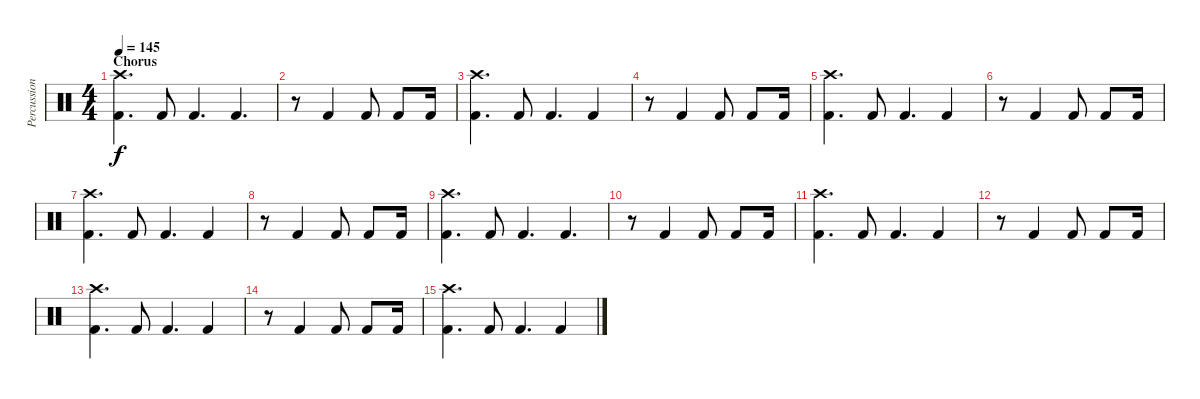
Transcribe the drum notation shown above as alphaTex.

\track ("Percussion" "Percussion") {instrument percussion}
\staff {score}
\articulation defaults
\ts (4 4)
\section ("" "Chorus")
\tempo 145
\clef neutral
\ks c
("Crash high (hit)" "Kick (hit) 2").4{d dy f} "Kick (hit) 2".8 "Kick (hit) 2".4{d} "Kick (hit) 2".4{d} |
r.8 "Kick (hit) 2".4 "Kick (hit) 2".8 "Kick (hit) 2".8 "Kick (hit) 2".16 |
("Crash high (hit)" "Kick (hit) 2").4{d} "Kick (hit) 2".8 "Kick (hit) 2".4{d} "Kick (hit) 2".4 |
r.8 "Kick (hit) 2".4 "Kick (hit) 2".8 "Kick (hit) 2".8 "Kick (hit) 2".16 |
("Crash high (hit)" "Kick (hit) 2").4{d} "Kick (hit) 2".8 "Kick (hit) 2".4{d} "Kick (hit) 2".4 |
r.8 "Kick (hit) 2".4 "Kick (hit) 2".8 "Kick (hit) 2".8 "Kick (hit) 2".16 |
("Crash high (hit)" "Kick (hit) 2").4{d} "Kick (hit) 2".8 "Kick (hit) 2".4{d} "Kick (hit) 2".4 |
r.8 "Kick (hit) 2".4 "Kick (hit) 2".8 "Kick (hit) 2".8 "Kick (hit) 2".16 |
("Crash high (hit)" "Kick (hit) 2").4{d} "Kick (hit) 2".8 "Kick (hit) 2".4{d} "Kick (hit) 2".4{d} |
r.8 "Kick (hit) 2".4 "Kick (hit) 2".8 "Kick (hit) 2".8 "Kick (hit) 2".16 |
("Crash high (hit)" "Kick (hit) 2").4{d} "Kick (hit) 2".8 "Kick (hit) 2".4{d} "Kick (hit) 2".4 |
r.8 "Kick (hit) 2".4 "Kick (hit) 2".8 "Kick (hit) 2".8 "Kick (hit) 2".16 |
("Crash high (hit)" "Kick (hit) 2").4{d} "Kick (hit) 2".8 "Kick (hit) 2".4{d} "Kick (hit) 2".4 |
r.8 "Kick (hit) 2".4 "Kick (hit) 2".8 "Kick (hit) 2".8 "Kick (hit) 2".16 |
("Crash high (hit)" "Kick (hit) 2").4{d} "Kick (hit) 2".8 "Kick (hit) 2".4{d} "Kick (hit) 2".4
